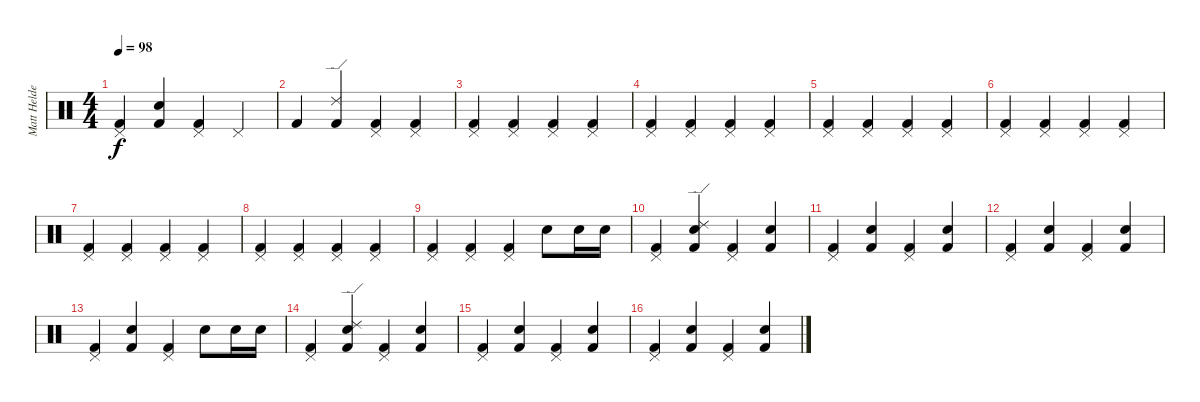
\track ("Matt Helders" "Matt Helde") {instrument percussion}
\staff {score}
\articulation defaults
\ts (4 4)
\tempo 98
\clef neutral
\ks c
("Kick (hit) 2" "Pedal Hi-Hat (hit)").4{dy f} ("Snare (hit) 2" "Kick (hit) 2").4 ("Kick (hit) 2" "Pedal Hi-Hat (hit)").4 "Pedal Hi-Hat (hit)".4 |
"Kick (hit) 2".4 ("Kick (hit) 2" "Ride (edge) 2").4 ("Kick (hit) 2" "Pedal Hi-Hat (hit)").4 ("Kick (hit) 2" "Pedal Hi-Hat (hit)").4 |
("Kick (hit) 2" "Pedal Hi-Hat (hit)").4 ("Kick (hit) 2" "Pedal Hi-Hat (hit)").4 ("Kick (hit) 2" "Pedal Hi-Hat (hit)").4 ("Kick (hit) 2" "Pedal Hi-Hat (hit)").4 |
("Kick (hit) 2" "Pedal Hi-Hat (hit)").4 ("Kick (hit) 2" "Pedal Hi-Hat (hit)").4 ("Kick (hit) 2" "Pedal Hi-Hat (hit)").4 ("Kick (hit) 2" "Pedal Hi-Hat (hit)").4 |
("Kick (hit) 2" "Pedal Hi-Hat (hit)").4 ("Kick (hit) 2" "Pedal Hi-Hat (hit)").4 ("Kick (hit) 2" "Pedal Hi-Hat (hit)").4 ("Kick (hit) 2" "Pedal Hi-Hat (hit)").4 |
("Kick (hit) 2" "Pedal Hi-Hat (hit)").4 ("Kick (hit) 2" "Pedal Hi-Hat (hit)").4 ("Kick (hit) 2" "Pedal Hi-Hat (hit)").4 ("Kick (hit) 2" "Pedal Hi-Hat (hit)").4 |
("Kick (hit) 2" "Pedal Hi-Hat (hit)").4 ("Kick (hit) 2" "Pedal Hi-Hat (hit)").4 ("Kick (hit) 2" "Pedal Hi-Hat (hit)").4 ("Kick (hit) 2" "Pedal Hi-Hat (hit)").4 |
("Kick (hit) 2" "Pedal Hi-Hat (hit)").4 ("Kick (hit) 2" "Pedal Hi-Hat (hit)").4 ("Kick (hit) 2" "Pedal Hi-Hat (hit)").4 ("Kick (hit) 2" "Pedal Hi-Hat (hit)").4 |
("Kick (hit) 2" "Pedal Hi-Hat (hit)").4 ("Kick (hit) 2" "Pedal Hi-Hat (hit)").4 ("Kick (hit) 2" "Pedal Hi-Hat (hit)").4 "Snare (hit) 2".8 "Snare (hit) 2".16 "Snare (hit) 2".16 |
("Kick (hit) 2" "Pedal Hi-Hat (hit)").4 ("Snare (hit) 2" "Kick (hit) 2" "Ride (edge) 2").4 ("Kick (hit) 2" "Pedal Hi-Hat (hit)").4 ("Snare (hit) 2" "Kick (hit) 2").4 |
("Kick (hit) 2" "Pedal Hi-Hat (hit)").4 ("Snare (hit) 2" "Kick (hit) 2").4 ("Kick (hit) 2" "Pedal Hi-Hat (hit)").4 ("Snare (hit) 2" "Kick (hit) 2").4 |
("Kick (hit) 2" "Pedal Hi-Hat (hit)").4 ("Snare (hit) 2" "Kick (hit) 2").4 ("Kick (hit) 2" "Pedal Hi-Hat (hit)").4 ("Snare (hit) 2" "Kick (hit) 2").4 |
("Kick (hit) 2" "Pedal Hi-Hat (hit)").4 ("Snare (hit) 2" "Kick (hit) 2").4 ("Kick (hit) 2" "Pedal Hi-Hat (hit)").4 "Snare (hit) 2".8 "Snare (hit) 2".16 "Snare (hit) 2".16 |
("Kick (hit) 2" "Pedal Hi-Hat (hit)").4 ("Snare (hit) 2" "Kick (hit) 2" "Ride (edge) 2").4 ("Kick (hit) 2" "Pedal Hi-Hat (hit)").4 ("Snare (hit) 2" "Kick (hit) 2").4 |
("Kick (hit) 2" "Pedal Hi-Hat (hit)").4 ("Snare (hit) 2" "Kick (hit) 2").4 ("Kick (hit) 2" "Pedal Hi-Hat (hit)").4 ("Snare (hit) 2" "Kick (hit) 2").4 |
("Kick (hit) 2" "Pedal Hi-Hat (hit)").4 ("Snare (hit) 2" "Kick (hit) 2").4 ("Kick (hit) 2" "Pedal Hi-Hat (hit)").4 ("Snare (hit) 2" "Kick (hit) 2").4
